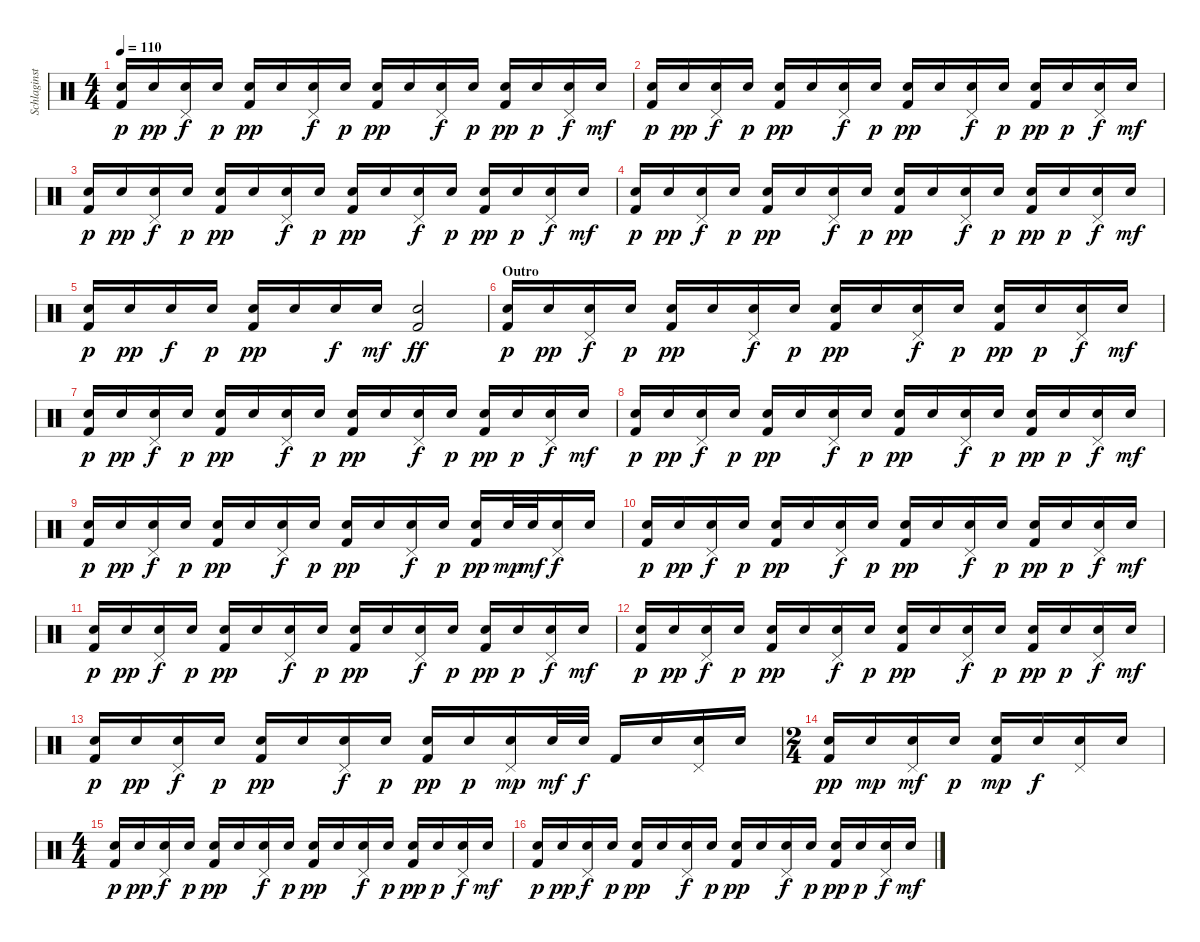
\track ("Schlaginstrumente - Auswahl" "Schlaginst") {instrument percussion}
\staff {score}
\articulation defaults
\ts (4 4)
\tempo 110
\clef neutral
\ks c
("Snare (hit) 2" "Kick (hit) 2").16{dy p} "Snare (hit) 2".16{dy pp} ("Pedal Hi-Hat (hit)" "Snare (hit) 2").16{dy f} "Snare (hit) 2".16{dy p} ("Snare (hit) 2" "Kick (hit) 2").16{dy pp} "Snare (hit) 2".16 ("Pedal Hi-Hat (hit)" "Snare (hit) 2").16{dy f} "Snare (hit) 2".16{dy p} ("Snare (hit) 2" "Kick (hit) 2").16{dy pp} "Snare (hit) 2".16 ("Pedal Hi-Hat (hit)" "Snare (hit) 2").16{dy f} "Snare (hit) 2".16{dy p} ("Snare (hit) 2" "Kick (hit) 2").16{dy pp} "Snare (hit) 2".16{dy p} ("Pedal Hi-Hat (hit)" "Snare (hit) 2").16{dy f} "Snare (hit) 2".16{dy mf} |
("Snare (hit) 2" "Kick (hit) 2").16{dy p} "Snare (hit) 2".16{dy pp} ("Pedal Hi-Hat (hit)" "Snare (hit) 2").16{dy f} "Snare (hit) 2".16{dy p} ("Snare (hit) 2" "Kick (hit) 2").16{dy pp} "Snare (hit) 2".16 ("Pedal Hi-Hat (hit)" "Snare (hit) 2").16{dy f} "Snare (hit) 2".16{dy p} ("Snare (hit) 2" "Kick (hit) 2").16{dy pp} "Snare (hit) 2".16 ("Pedal Hi-Hat (hit)" "Snare (hit) 2").16{dy f} "Snare (hit) 2".16{dy p} ("Snare (hit) 2" "Kick (hit) 2").16{dy pp} "Snare (hit) 2".16{dy p} ("Pedal Hi-Hat (hit)" "Snare (hit) 2").16{dy f} "Snare (hit) 2".16{dy mf} |
("Snare (hit) 2" "Kick (hit) 2").16{dy p} "Snare (hit) 2".16{dy pp} ("Pedal Hi-Hat (hit)" "Snare (hit) 2").16{dy f} "Snare (hit) 2".16{dy p} ("Snare (hit) 2" "Kick (hit) 2").16{dy pp} "Snare (hit) 2".16 ("Pedal Hi-Hat (hit)" "Snare (hit) 2").16{dy f} "Snare (hit) 2".16{dy p} ("Snare (hit) 2" "Kick (hit) 2").16{dy pp} "Snare (hit) 2".16 ("Pedal Hi-Hat (hit)" "Snare (hit) 2").16{dy f} "Snare (hit) 2".16{dy p} ("Snare (hit) 2" "Kick (hit) 2").16{dy pp} "Snare (hit) 2".16{dy p} ("Pedal Hi-Hat (hit)" "Snare (hit) 2").16{dy f} "Snare (hit) 2".16{dy mf} |
("Snare (hit) 2" "Kick (hit) 2").16{dy p} "Snare (hit) 2".16{dy pp} ("Pedal Hi-Hat (hit)" "Snare (hit) 2").16{dy f} "Snare (hit) 2".16{dy p} ("Snare (hit) 2" "Kick (hit) 2").16{dy pp} "Snare (hit) 2".16 ("Pedal Hi-Hat (hit)" "Snare (hit) 2").16{dy f} "Snare (hit) 2".16{dy p} ("Snare (hit) 2" "Kick (hit) 2").16{dy pp} "Snare (hit) 2".16 ("Pedal Hi-Hat (hit)" "Snare (hit) 2").16{dy f} "Snare (hit) 2".16{dy p} ("Snare (hit) 2" "Kick (hit) 2").16{dy pp} "Snare (hit) 2".16{dy p} ("Pedal Hi-Hat (hit)" "Snare (hit) 2").16{dy f} "Snare (hit) 2".16{dy mf} |
("Snare (hit) 2" "Kick (hit) 2").16{dy p} "Snare (hit) 2".16{dy pp} "Snare (hit) 2".16{dy f} "Snare (hit) 2".16{dy p} ("Snare (hit) 2" "Kick (hit) 2").16{dy pp} "Snare (hit) 2".16 "Snare (hit) 2".16{dy f} "Snare (hit) 2".16{dy mf} ("Snare (hit) 2" "Kick (hit) 2").2{dy ff} |
\section ("" "Outro")
("Snare (hit) 2" "Kick (hit) 2").16{dy p} "Snare (hit) 2".16{dy pp} ("Pedal Hi-Hat (hit)" "Snare (hit) 2").16{dy f} "Snare (hit) 2".16{dy p} ("Snare (hit) 2" "Kick (hit) 2").16{dy pp} "Snare (hit) 2".16 ("Pedal Hi-Hat (hit)" "Snare (hit) 2").16{dy f} "Snare (hit) 2".16{dy p} ("Snare (hit) 2" "Kick (hit) 2").16{dy pp} "Snare (hit) 2".16 ("Pedal Hi-Hat (hit)" "Snare (hit) 2").16{dy f} "Snare (hit) 2".16{dy p} ("Snare (hit) 2" "Kick (hit) 2").16{dy pp} "Snare (hit) 2".16{dy p} ("Pedal Hi-Hat (hit)" "Snare (hit) 2").16{dy f} "Snare (hit) 2".16{dy mf} |
("Snare (hit) 2" "Kick (hit) 2").16{dy p} "Snare (hit) 2".16{dy pp} ("Pedal Hi-Hat (hit)" "Snare (hit) 2").16{dy f} "Snare (hit) 2".16{dy p} ("Snare (hit) 2" "Kick (hit) 2").16{dy pp} "Snare (hit) 2".16 ("Pedal Hi-Hat (hit)" "Snare (hit) 2").16{dy f} "Snare (hit) 2".16{dy p} ("Snare (hit) 2" "Kick (hit) 2").16{dy pp} "Snare (hit) 2".16 ("Pedal Hi-Hat (hit)" "Snare (hit) 2").16{dy f} "Snare (hit) 2".16{dy p} ("Snare (hit) 2" "Kick (hit) 2").16{dy pp} "Snare (hit) 2".16{dy p} ("Pedal Hi-Hat (hit)" "Snare (hit) 2").16{dy f} "Snare (hit) 2".16{dy mf} |
("Snare (hit) 2" "Kick (hit) 2").16{dy p} "Snare (hit) 2".16{dy pp} ("Pedal Hi-Hat (hit)" "Snare (hit) 2").16{dy f} "Snare (hit) 2".16{dy p} ("Snare (hit) 2" "Kick (hit) 2").16{dy pp} "Snare (hit) 2".16 ("Pedal Hi-Hat (hit)" "Snare (hit) 2").16{dy f} "Snare (hit) 2".16{dy p} ("Snare (hit) 2" "Kick (hit) 2").16{dy pp} "Snare (hit) 2".16 ("Pedal Hi-Hat (hit)" "Snare (hit) 2").16{dy f} "Snare (hit) 2".16{dy p} ("Snare (hit) 2" "Kick (hit) 2").16{dy pp} "Snare (hit) 2".16{dy p} ("Pedal Hi-Hat (hit)" "Snare (hit) 2").16{dy f} "Snare (hit) 2".16{dy mf} |
("Snare (hit) 2" "Kick (hit) 2").16{dy p} "Snare (hit) 2".16{dy pp} ("Pedal Hi-Hat (hit)" "Snare (hit) 2").16{dy f} "Snare (hit) 2".16{dy p} ("Snare (hit) 2" "Kick (hit) 2").16{dy pp} "Snare (hit) 2".16 ("Pedal Hi-Hat (hit)" "Snare (hit) 2").16{dy f} "Snare (hit) 2".16{dy p} ("Snare (hit) 2" "Kick (hit) 2").16{dy pp} "Snare (hit) 2".16 ("Pedal Hi-Hat (hit)" "Snare (hit) 2").16{dy f} "Snare (hit) 2".16{dy p} ("Snare (hit) 2" "Kick (hit) 2").16{dy pp} "Snare (hit) 2".32{dy mp} "Snare (hit) 2".32{dy mf} ("Pedal Hi-Hat (hit)" "Snare (hit) 2").16{dy f} "Snare (hit) 2".16 |
("Snare (hit) 2" "Kick (hit) 2").16{dy p} "Snare (hit) 2".16{dy pp} ("Pedal Hi-Hat (hit)" "Snare (hit) 2").16{dy f} "Snare (hit) 2".16{dy p} ("Snare (hit) 2" "Kick (hit) 2").16{dy pp} "Snare (hit) 2".16 ("Pedal Hi-Hat (hit)" "Snare (hit) 2").16{dy f} "Snare (hit) 2".16{dy p} ("Snare (hit) 2" "Kick (hit) 2").16{dy pp} "Snare (hit) 2".16 ("Pedal Hi-Hat (hit)" "Snare (hit) 2").16{dy f} "Snare (hit) 2".16{dy p} ("Snare (hit) 2" "Kick (hit) 2").16{dy pp} "Snare (hit) 2".16{dy p} ("Pedal Hi-Hat (hit)" "Snare (hit) 2").16{dy f} "Snare (hit) 2".16{dy mf} |
("Snare (hit) 2" "Kick (hit) 2").16{dy p} "Snare (hit) 2".16{dy pp} ("Pedal Hi-Hat (hit)" "Snare (hit) 2").16{dy f} "Snare (hit) 2".16{dy p} ("Snare (hit) 2" "Kick (hit) 2").16{dy pp} "Snare (hit) 2".16 ("Pedal Hi-Hat (hit)" "Snare (hit) 2").16{dy f} "Snare (hit) 2".16{dy p} ("Snare (hit) 2" "Kick (hit) 2").16{dy pp} "Snare (hit) 2".16 ("Pedal Hi-Hat (hit)" "Snare (hit) 2").16{dy f} "Snare (hit) 2".16{dy p} ("Snare (hit) 2" "Kick (hit) 2").16{dy pp} "Snare (hit) 2".16{dy p} ("Pedal Hi-Hat (hit)" "Snare (hit) 2").16{dy f} "Snare (hit) 2".16{dy mf} |
("Snare (hit) 2" "Kick (hit) 2").16{dy p} "Snare (hit) 2".16{dy pp} ("Pedal Hi-Hat (hit)" "Snare (hit) 2").16{dy f} "Snare (hit) 2".16{dy p} ("Snare (hit) 2" "Kick (hit) 2").16{dy pp} "Snare (hit) 2".16 ("Pedal Hi-Hat (hit)" "Snare (hit) 2").16{dy f} "Snare (hit) 2".16{dy p} ("Snare (hit) 2" "Kick (hit) 2").16{dy pp} "Snare (hit) 2".16 ("Pedal Hi-Hat (hit)" "Snare (hit) 2").16{dy f} "Snare (hit) 2".16{dy p} ("Snare (hit) 2" "Kick (hit) 2").16{dy pp} "Snare (hit) 2".16{dy p} ("Pedal Hi-Hat (hit)" "Snare (hit) 2").16{dy f} "Snare (hit) 2".16{dy mf} |
("Snare (hit) 2" "Kick (hit) 2").16{dy p} "Snare (hit) 2".16{dy pp} ("Pedal Hi-Hat (hit)" "Snare (hit) 2").16{dy f} "Snare (hit) 2".16{dy p} ("Snare (hit) 2" "Kick (hit) 2").16{dy pp} "Snare (hit) 2".16 ("Pedal Hi-Hat (hit)" "Snare (hit) 2").16{dy f} "Snare (hit) 2".16{dy p} ("Snare (hit) 2" "Kick (hit) 2").16{dy pp} "Snare (hit) 2".16{dy p} ("Pedal Hi-Hat (hit)" "Snare (hit) 2").16{dy mp} "Snare (hit) 2".32{dy mf} "Snare (hit) 2".32{dy f} "Kick (hit) 2".16 "Snare (hit) 2".16 ("Pedal Hi-Hat (hit)" "Snare (hit) 2").16 "Snare (hit) 2".16 |
\ts (2 4)
("Snare (hit) 2" "Kick (hit) 2").16{dy pp} "Snare (hit) 2".16{dy mp} ("Pedal Hi-Hat (hit)" "Snare (hit) 2").16{dy mf} "Snare (hit) 2".16{dy p} ("Snare (hit) 2" "Kick (hit) 2").16{dy mp} "Snare (hit) 2".16{dy f} ("Pedal Hi-Hat (hit)" "Snare (hit) 2").16 "Snare (hit) 2".16 |
\ts (4 4)
("Snare (hit) 2" "Kick (hit) 2").16{dy p} "Snare (hit) 2".16{dy pp} ("Pedal Hi-Hat (hit)" "Snare (hit) 2").16{dy f} "Snare (hit) 2".16{dy p} ("Snare (hit) 2" "Kick (hit) 2").16{dy pp} "Snare (hit) 2".16 ("Pedal Hi-Hat (hit)" "Snare (hit) 2").16{dy f} "Snare (hit) 2".16{dy p} ("Snare (hit) 2" "Kick (hit) 2").16{dy pp} "Snare (hit) 2".16 ("Pedal Hi-Hat (hit)" "Snare (hit) 2").16{dy f} "Snare (hit) 2".16{dy p} ("Snare (hit) 2" "Kick (hit) 2").16{dy pp} "Snare (hit) 2".16{dy p} ("Pedal Hi-Hat (hit)" "Snare (hit) 2").16{dy f} "Snare (hit) 2".16{dy mf} |
("Snare (hit) 2" "Kick (hit) 2").16{dy p} "Snare (hit) 2".16{dy pp} ("Pedal Hi-Hat (hit)" "Snare (hit) 2").16{dy f} "Snare (hit) 2".16{dy p} ("Snare (hit) 2" "Kick (hit) 2").16{dy pp} "Snare (hit) 2".16 ("Pedal Hi-Hat (hit)" "Snare (hit) 2").16{dy f} "Snare (hit) 2".16{dy p} ("Snare (hit) 2" "Kick (hit) 2").16{dy pp} "Snare (hit) 2".16 ("Pedal Hi-Hat (hit)" "Snare (hit) 2").16{dy f} "Snare (hit) 2".16{dy p} ("Snare (hit) 2" "Kick (hit) 2").16{dy pp} "Snare (hit) 2".16{dy p} ("Pedal Hi-Hat (hit)" "Snare (hit) 2").16{dy f} "Snare (hit) 2".16{dy mf}
